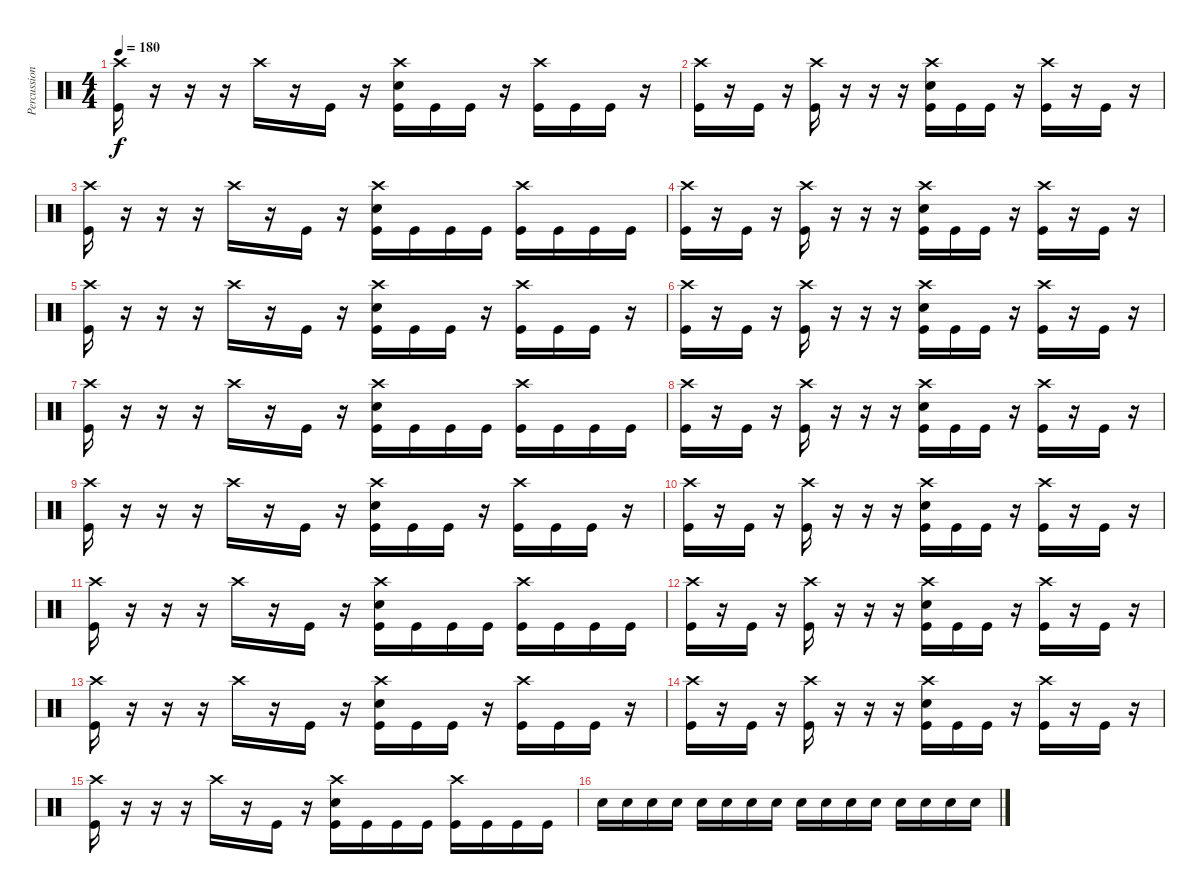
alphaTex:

\track ("Percussion" "Percussion") {instrument percussion}
\staff {score}
\articulation defaults
\ts (4 4)
\tempo 180
\clef neutral
\ks c
("Crash high (hit)" "Kick (hit)").16{dy f} r.16 r.16 r.16 "Crash high (hit)".16 r.16 "Kick (hit)".16 r.16 ("Crash high (hit)" "Electric Snare (hit)" "Kick (hit)").16 "Kick (hit)".16 "Kick (hit)".16 r.16 ("Crash high (hit)" "Kick (hit)").16 "Kick (hit)".16 "Kick (hit)".16 r.16 |
("Crash high (hit)" "Kick (hit)").16 r.16 "Kick (hit)".16 r.16 ("Crash high (hit)" "Kick (hit)").16 r.16 r.16 r.16 ("Crash high (hit)" "Electric Snare (hit)" "Kick (hit)").16 "Kick (hit)".16 "Kick (hit)".16 r.16 ("Crash high (hit)" "Kick (hit)").16 r.16 "Kick (hit)".16 r.16 |
("Crash high (hit)" "Kick (hit)").16 r.16 r.16 r.16 "Crash high (hit)".16 r.16 "Kick (hit)".16 r.16 ("Crash high (hit)" "Electric Snare (hit)" "Kick (hit)").16 "Kick (hit)".16 "Kick (hit)".16 "Kick (hit)".16 ("Crash high (hit)" "Kick (hit)").16 "Kick (hit)".16 "Kick (hit)".16 "Kick (hit)".16 |
("Crash high (hit)" "Kick (hit)").16 r.16 "Kick (hit)".16 r.16 ("Crash high (hit)" "Kick (hit)").16 r.16 r.16 r.16 ("Crash high (hit)" "Electric Snare (hit)" "Kick (hit)").16 "Kick (hit)".16 "Kick (hit)".16 r.16 ("Crash high (hit)" "Kick (hit)").16 r.16 "Kick (hit)".16 r.16 |
("Crash high (hit)" "Kick (hit)").16 r.16 r.16 r.16 "Crash high (hit)".16 r.16 "Kick (hit)".16 r.16 ("Crash high (hit)" "Electric Snare (hit)" "Kick (hit)").16 "Kick (hit)".16 "Kick (hit)".16 r.16 ("Crash high (hit)" "Kick (hit)").16 "Kick (hit)".16 "Kick (hit)".16 r.16 |
("Crash high (hit)" "Kick (hit)").16 r.16 "Kick (hit)".16 r.16 ("Crash high (hit)" "Kick (hit)").16 r.16 r.16 r.16 ("Crash high (hit)" "Electric Snare (hit)" "Kick (hit)").16 "Kick (hit)".16 "Kick (hit)".16 r.16 ("Crash high (hit)" "Kick (hit)").16 r.16 "Kick (hit)".16 r.16 |
("Crash high (hit)" "Kick (hit)").16 r.16 r.16 r.16 "Crash high (hit)".16 r.16 "Kick (hit)".16 r.16 ("Crash high (hit)" "Electric Snare (hit)" "Kick (hit)").16 "Kick (hit)".16 "Kick (hit)".16 "Kick (hit)".16 ("Crash high (hit)" "Kick (hit)").16 "Kick (hit)".16 "Kick (hit)".16 "Kick (hit)".16 |
("Crash high (hit)" "Kick (hit)").16 r.16 "Kick (hit)".16 r.16 ("Crash high (hit)" "Kick (hit)").16 r.16 r.16 r.16 ("Crash high (hit)" "Electric Snare (hit)" "Kick (hit)").16 "Kick (hit)".16 "Kick (hit)".16 r.16 ("Crash high (hit)" "Kick (hit)").16 r.16 "Kick (hit)".16 r.16 |
("Crash high (hit)" "Kick (hit)").16 r.16 r.16 r.16 "Crash high (hit)".16 r.16 "Kick (hit)".16 r.16 ("Crash high (hit)" "Electric Snare (hit)" "Kick (hit)").16 "Kick (hit)".16 "Kick (hit)".16 r.16 ("Crash high (hit)" "Kick (hit)").16 "Kick (hit)".16 "Kick (hit)".16 r.16 |
("Crash high (hit)" "Kick (hit)").16 r.16 "Kick (hit)".16 r.16 ("Crash high (hit)" "Kick (hit)").16 r.16 r.16 r.16 ("Crash high (hit)" "Electric Snare (hit)" "Kick (hit)").16 "Kick (hit)".16 "Kick (hit)".16 r.16 ("Crash high (hit)" "Kick (hit)").16 r.16 "Kick (hit)".16 r.16 |
("Crash high (hit)" "Kick (hit)").16 r.16 r.16 r.16 "Crash high (hit)".16 r.16 "Kick (hit)".16 r.16 ("Crash high (hit)" "Electric Snare (hit)" "Kick (hit)").16 "Kick (hit)".16 "Kick (hit)".16 "Kick (hit)".16 ("Crash high (hit)" "Kick (hit)").16 "Kick (hit)".16 "Kick (hit)".16 "Kick (hit)".16 |
("Crash high (hit)" "Kick (hit)").16 r.16 "Kick (hit)".16 r.16 ("Crash high (hit)" "Kick (hit)").16 r.16 r.16 r.16 ("Crash high (hit)" "Electric Snare (hit)" "Kick (hit)").16 "Kick (hit)".16 "Kick (hit)".16 r.16 ("Crash high (hit)" "Kick (hit)").16 r.16 "Kick (hit)".16 r.16 |
("Crash high (hit)" "Kick (hit)").16 r.16 r.16 r.16 "Crash high (hit)".16 r.16 "Kick (hit)".16 r.16 ("Crash high (hit)" "Electric Snare (hit)" "Kick (hit)").16 "Kick (hit)".16 "Kick (hit)".16 r.16 ("Crash high (hit)" "Kick (hit)").16 "Kick (hit)".16 "Kick (hit)".16 r.16 |
("Crash high (hit)" "Kick (hit)").16 r.16 "Kick (hit)".16 r.16 ("Crash high (hit)" "Kick (hit)").16 r.16 r.16 r.16 ("Crash high (hit)" "Electric Snare (hit)" "Kick (hit)").16 "Kick (hit)".16 "Kick (hit)".16 r.16 ("Crash high (hit)" "Kick (hit)").16 r.16 "Kick (hit)".16 r.16 |
("Crash high (hit)" "Kick (hit)").16 r.16 r.16 r.16 "Crash high (hit)".16 r.16 "Kick (hit)".16 r.16 ("Crash high (hit)" "Electric Snare (hit)" "Kick (hit)").16 "Kick (hit)".16 "Kick (hit)".16 "Kick (hit)".16 ("Crash high (hit)" "Kick (hit)").16 "Kick (hit)".16 "Kick (hit)".16 "Kick (hit)".16 |
"Electric Snare (hit)".16 "Electric Snare (hit)".16 "Electric Snare (hit)".16 "Electric Snare (hit)".16 "Electric Snare (hit)".16 "Electric Snare (hit)".16 "Electric Snare (hit)".16 "Electric Snare (hit)".16 "Electric Snare (hit)".16 "Electric Snare (hit)".16 "Electric Snare (hit)".16 "Electric Snare (hit)".16 "Electric Snare (hit)".16 "Electric Snare (hit)".16 "Electric Snare (hit)".16 "Electric Snare (hit)".16
